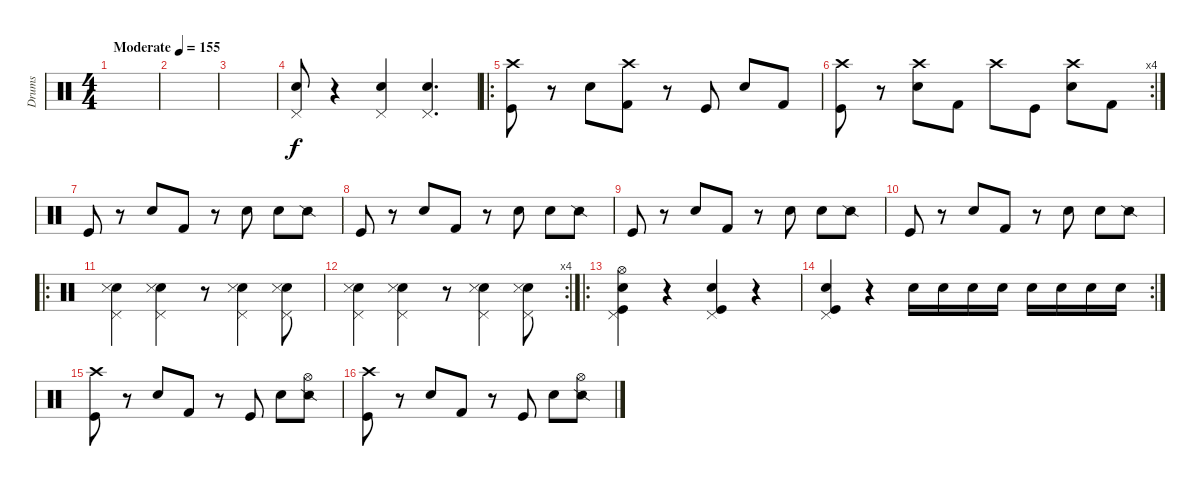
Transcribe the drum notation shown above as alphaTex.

\track ("Drums" "Drums") {instrument percussion}
\staff {score}
\articulation defaults
\ts (4 4)
\tempo (155 "Moderate")
\clef neutral
\ks c
|
|
|
("Snare (hit) 2" "Pedal Hi-Hat (hit)").8 r.4 ("Snare (hit) 2" "Pedal Hi-Hat (hit)").4 ("Snare (hit) 2" "Pedal Hi-Hat (hit)").4{d} |
\ro
("Kick (hit)" "Crash high (hit)").8 r.8 "Snare (hit) 2".8 ("Kick (hit) 2" "Crash high (hit)").8 r.8 "Kick (hit)".8 "Snare (hit) 2".8 "Kick (hit) 2".8 |
\rc 4
("Kick (hit)" "Crash high (hit)").8 r.8 ("Snare (hit) 2" "Crash high (hit)").8 "Kick (hit) 2".8 "Crash high (hit)".8 "Kick (hit)".8 ("Snare (hit) 2" "Crash high (hit)").8 "Kick (hit) 2".8 |
"Kick (hit)".8 r.8 "Snare (hit) 2".8 "Kick (hit) 2".8 r.8 "Snare (hit) 2".8 "Snare (hit) 2".8 "Snare (side stick) 2".8 |
"Kick (hit)".8 r.8 "Snare (hit) 2".8 "Kick (hit) 2".8 r.8 "Snare (hit) 2".8 "Snare (hit) 2".8 "Snare (side stick) 2".8 |
"Kick (hit)".8 r.8 "Snare (hit) 2".8 "Kick (hit) 2".8 r.8 "Snare (hit) 2".8 "Snare (hit) 2".8 "Snare (side stick) 2".8 |
"Kick (hit)".8 r.8 "Snare (hit) 2".8 "Kick (hit) 2".8 r.8 "Snare (hit) 2".8 "Snare (hit) 2".8 "Snare (side stick) 2".8 |
\ro
("Snare (hit) 2" "Snare (side stick) 3" "Pedal Hi-Hat (hit)").4 ("Snare (hit) 2" "Snare (side stick) 3" "Pedal Hi-Hat (hit)").4 r.8 ("Snare (hit) 2" "Snare (side stick) 3" "Pedal Hi-Hat (hit)").4 ("Snare (hit) 2" "Snare (side stick) 3" "Pedal Hi-Hat (hit)").8 |
\rc 4
("Snare (hit) 2" "Snare (side stick) 3" "Pedal Hi-Hat (hit)").4 ("Snare (hit) 2" "Snare (side stick) 3" "Pedal Hi-Hat (hit)").4 r.8 ("Snare (hit) 2" "Snare (side stick) 3" "Pedal Hi-Hat (hit)").4 ("Snare (hit) 2" "Snare (side stick) 3" "Pedal Hi-Hat (hit)").8 |
\ro
("Snare (hit) 2" "Kick (hit)" "Pedal Hi-Hat (hit)" "Hi-Hat (open)").4 r.4 ("Snare (hit) 2" "Kick (hit)" "Pedal Hi-Hat (hit)").4 r.4 |
\rc 2
("Snare (hit) 2" "Kick (hit)" "Pedal Hi-Hat (hit)").4 r.4 "Snare (hit) 2".16 "Snare (hit) 2".16 "Snare (hit) 2".16 "Snare (hit) 2".16 "Snare (hit) 2".16 "Snare (hit) 2".16 "Snare (hit) 2".16 "Snare (hit) 2".16 |
("Kick (hit)" "Crash high (hit)").8 r.8 "Snare (hit) 2".8 "Kick (hit) 2".8 r.8 "Kick (hit)".8 "Snare (hit) 2".8 ("Snare (side stick) 2" "Hi-Hat (open)").8 |
("Kick (hit)" "Crash high (hit)").8 r.8 "Snare (hit) 2".8 "Kick (hit) 2".8 r.8 "Kick (hit)".8 "Snare (hit) 2".8 ("Snare (side stick) 2" "Hi-Hat (open)").8
